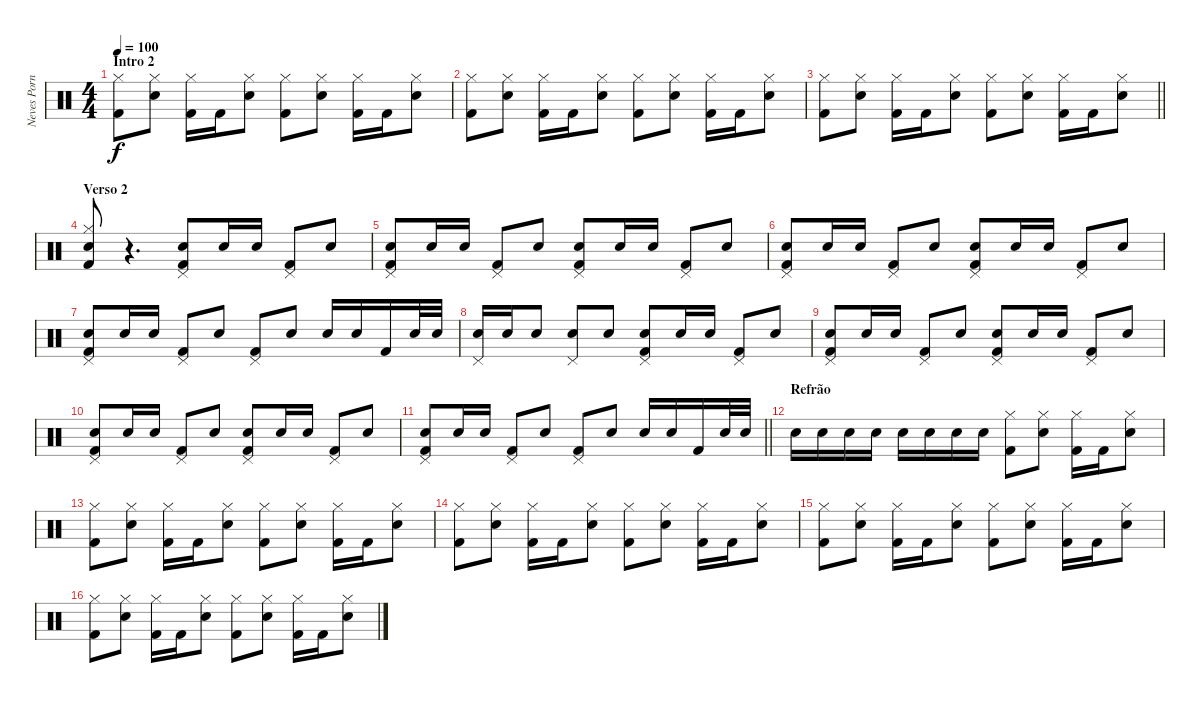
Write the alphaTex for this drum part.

\track ("Neves Porntoy" "Neves Porn") {instrument percussion}
\staff {score}
\articulation defaults
\ts (4 4)
\section ("" "Intro 2")
\tempo 100
\clef neutral
\ks c
("Kick (hit) 2" "Hi-Hat (closed)").8{dy f} ("Electric Snare (hit)" "Hi-Hat (closed)").8 ("Kick (hit) 2" "Hi-Hat (closed)").16 "Kick (hit) 2".16 ("Electric Snare (hit)" "Hi-Hat (closed)").8 ("Kick (hit) 2" "Hi-Hat (closed)").8 ("Electric Snare (hit)" "Hi-Hat (closed)").8 ("Kick (hit) 2" "Hi-Hat (closed)").16 "Kick (hit) 2".16 ("Electric Snare (hit)" "Hi-Hat (closed)").8 |
("Kick (hit) 2" "Hi-Hat (closed)").8 ("Electric Snare (hit)" "Hi-Hat (closed)").8 ("Kick (hit) 2" "Hi-Hat (closed)").16 "Kick (hit) 2".16 ("Electric Snare (hit)" "Hi-Hat (closed)").8 ("Kick (hit) 2" "Hi-Hat (closed)").8 ("Electric Snare (hit)" "Hi-Hat (closed)").8 ("Kick (hit) 2" "Hi-Hat (closed)").16 "Kick (hit) 2".16 ("Electric Snare (hit)" "Hi-Hat (closed)").8 |
\barLineRight lightlight
("Kick (hit) 2" "Hi-Hat (closed)").8 ("Electric Snare (hit)" "Hi-Hat (closed)").8 ("Kick (hit) 2" "Hi-Hat (closed)").16 "Kick (hit) 2".16 ("Electric Snare (hit)" "Hi-Hat (closed)").8 ("Kick (hit) 2" "Hi-Hat (closed)").8 ("Electric Snare (hit)" "Hi-Hat (closed)").8 ("Kick (hit) 2" "Hi-Hat (closed)").16 "Kick (hit) 2".16 ("Electric Snare (hit)" "Hi-Hat (closed)").8 |
\section ("" "Verso 2")
("Electric Snare (hit)" "Kick (hit) 2" "Hi-Hat (closed)").8 r.4{d} ("Electric Snare (hit)" "Kick (hit) 2" "Pedal Hi-Hat (hit)").8 "Electric Snare (hit)".16 "Electric Snare (hit)".16 ("Kick (hit) 2" "Pedal Hi-Hat (hit)").8 "Electric Snare (hit)".8 |
("Electric Snare (hit)" "Kick (hit) 2" "Pedal Hi-Hat (hit)").8 "Electric Snare (hit)".16 "Electric Snare (hit)".16 ("Kick (hit) 2" "Pedal Hi-Hat (hit)").8 "Electric Snare (hit)".8 ("Electric Snare (hit)" "Kick (hit) 2" "Pedal Hi-Hat (hit)").8 "Electric Snare (hit)".16 "Electric Snare (hit)".16 ("Kick (hit) 2" "Pedal Hi-Hat (hit)").8 "Electric Snare (hit)".8 |
("Electric Snare (hit)" "Kick (hit) 2" "Pedal Hi-Hat (hit)").8 "Electric Snare (hit)".16 "Electric Snare (hit)".16 ("Kick (hit) 2" "Pedal Hi-Hat (hit)").8 "Electric Snare (hit)".8 ("Electric Snare (hit)" "Kick (hit) 2" "Pedal Hi-Hat (hit)").8 "Electric Snare (hit)".16 "Electric Snare (hit)".16 ("Kick (hit) 2" "Pedal Hi-Hat (hit)").8 "Electric Snare (hit)".8 |
("Electric Snare (hit)" "Kick (hit) 2" "Pedal Hi-Hat (hit)").8 "Electric Snare (hit)".16 "Electric Snare (hit)".16 ("Kick (hit) 2" "Pedal Hi-Hat (hit)").8 "Electric Snare (hit)".8 ("Kick (hit) 2" "Pedal Hi-Hat (hit)").8 "Electric Snare (hit)".8 "Electric Snare (hit)".16 "Electric Snare (hit)".16 "Kick (hit) 2".16 "Electric Snare (hit)".32 "Electric Snare (hit)".32 |
("Electric Snare (hit)" "Pedal Hi-Hat (hit)").16 "Electric Snare (hit)".16 "Electric Snare (hit)".8 ("Electric Snare (hit)" "Pedal Hi-Hat (hit)").8 "Electric Snare (hit)".8 ("Electric Snare (hit)" "Kick (hit) 2" "Pedal Hi-Hat (hit)").8 "Electric Snare (hit)".16 "Electric Snare (hit)".16 ("Kick (hit) 2" "Pedal Hi-Hat (hit)").8 "Electric Snare (hit)".8 |
("Electric Snare (hit)" "Kick (hit) 2" "Pedal Hi-Hat (hit)").8 "Electric Snare (hit)".16 "Electric Snare (hit)".16 ("Kick (hit) 2" "Pedal Hi-Hat (hit)").8 "Electric Snare (hit)".8 ("Electric Snare (hit)" "Kick (hit) 2" "Pedal Hi-Hat (hit)").8 "Electric Snare (hit)".16 "Electric Snare (hit)".16 ("Kick (hit) 2" "Pedal Hi-Hat (hit)").8 "Electric Snare (hit)".8 |
("Electric Snare (hit)" "Kick (hit) 2" "Pedal Hi-Hat (hit)").8 "Electric Snare (hit)".16 "Electric Snare (hit)".16 ("Kick (hit) 2" "Pedal Hi-Hat (hit)").8 "Electric Snare (hit)".8 ("Electric Snare (hit)" "Kick (hit) 2" "Pedal Hi-Hat (hit)").8 "Electric Snare (hit)".16 "Electric Snare (hit)".16 ("Kick (hit) 2" "Pedal Hi-Hat (hit)").8 "Electric Snare (hit)".8 |
\barLineRight lightlight
("Electric Snare (hit)" "Kick (hit) 2" "Pedal Hi-Hat (hit)").8 "Electric Snare (hit)".16 "Electric Snare (hit)".16 ("Kick (hit) 2" "Pedal Hi-Hat (hit)").8 "Electric Snare (hit)".8 ("Kick (hit) 2" "Pedal Hi-Hat (hit)").8 "Electric Snare (hit)".8 "Electric Snare (hit)".16 "Electric Snare (hit)".16 "Kick (hit) 2".16 "Electric Snare (hit)".32 "Electric Snare (hit)".32 |
\section ("" "Refrão")
"Electric Snare (hit)".16 "Electric Snare (hit)".16 "Electric Snare (hit)".16 "Electric Snare (hit)".16 "Electric Snare (hit)".16 "Electric Snare (hit)".16 "Electric Snare (hit)".16 "Electric Snare (hit)".16 ("Kick (hit) 2" "Hi-Hat (closed)").8 ("Electric Snare (hit)" "Hi-Hat (closed)").8 ("Kick (hit) 2" "Hi-Hat (closed)").16 "Kick (hit) 2".16 ("Electric Snare (hit)" "Hi-Hat (closed)").8 |
("Kick (hit) 2" "Hi-Hat (closed)").8 ("Electric Snare (hit)" "Hi-Hat (closed)").8 ("Kick (hit) 2" "Hi-Hat (closed)").16 "Kick (hit) 2".16 ("Electric Snare (hit)" "Hi-Hat (closed)").8 ("Kick (hit) 2" "Hi-Hat (closed)").8 ("Electric Snare (hit)" "Hi-Hat (closed)").8 ("Kick (hit) 2" "Hi-Hat (closed)").16 "Kick (hit) 2".16 ("Electric Snare (hit)" "Hi-Hat (closed)").8 |
("Kick (hit) 2" "Hi-Hat (closed)").8 ("Electric Snare (hit)" "Hi-Hat (closed)").8 ("Kick (hit) 2" "Hi-Hat (closed)").16 "Kick (hit) 2".16 ("Electric Snare (hit)" "Hi-Hat (closed)").8 ("Kick (hit) 2" "Hi-Hat (closed)").8 ("Electric Snare (hit)" "Hi-Hat (closed)").8 ("Kick (hit) 2" "Hi-Hat (closed)").16 "Kick (hit) 2".16 ("Electric Snare (hit)" "Hi-Hat (closed)").8 |
("Kick (hit) 2" "Hi-Hat (closed)").8 ("Electric Snare (hit)" "Hi-Hat (closed)").8 ("Kick (hit) 2" "Hi-Hat (closed)").16 "Kick (hit) 2".16 ("Electric Snare (hit)" "Hi-Hat (closed)").8 ("Kick (hit) 2" "Hi-Hat (closed)").8 ("Electric Snare (hit)" "Hi-Hat (closed)").8 ("Kick (hit) 2" "Hi-Hat (closed)").16 "Kick (hit) 2".16 ("Electric Snare (hit)" "Hi-Hat (closed)").8 |
("Kick (hit) 2" "Hi-Hat (closed)").8 ("Electric Snare (hit)" "Hi-Hat (closed)").8 ("Kick (hit) 2" "Hi-Hat (closed)").16 "Kick (hit) 2".16 ("Electric Snare (hit)" "Hi-Hat (closed)").8 ("Kick (hit) 2" "Hi-Hat (closed)").8 ("Electric Snare (hit)" "Hi-Hat (closed)").8 ("Kick (hit) 2" "Hi-Hat (closed)").16 "Kick (hit) 2".16 ("Electric Snare (hit)" "Hi-Hat (closed)").8
